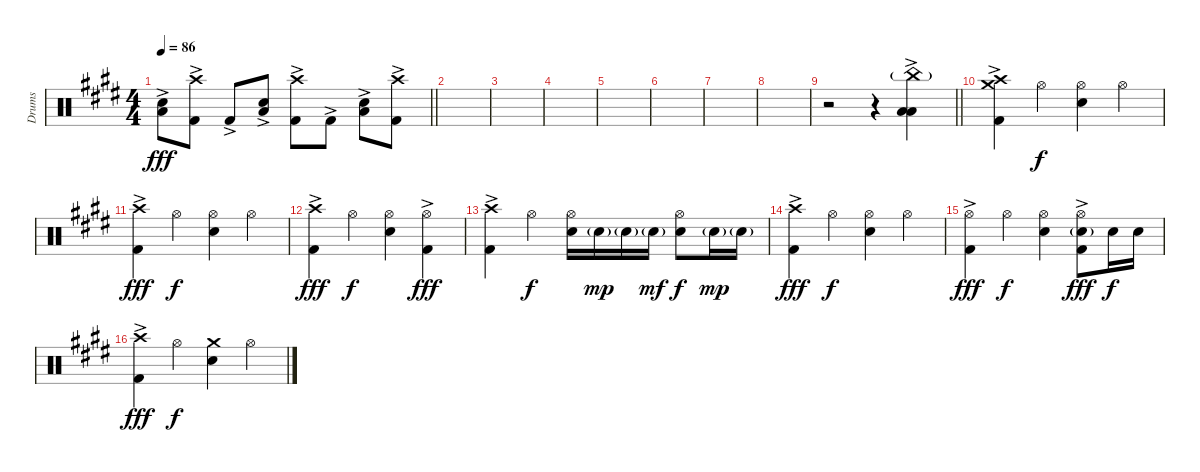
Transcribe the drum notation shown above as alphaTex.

\track ("Drums" "Drums") {instrument percussion}
\staff {score}
\articulation defaults
\ts (4 4)
\tempo 86
\clef neutral
\barLineRight lightlight
\ks c#minor
("Snare (hit) 2" "Low Tom (hit)"{ac}).8{dy fff} ("Crash high (hit)" "Kick (hit) 2"{ac}).8 "Kick (hit) 2"{ac}.8 ("Snare (hit) 2" "Low Tom (hit)"{ac}).8 ("Crash high (hit)" "Kick (hit) 2"{ac}).8 "Kick (hit) 2"{ac}.8 ("Snare (hit) 2" "Low Tom (hit)"{ac}).8 ("Crash high (hit)" "Kick (hit) 2"{ac}).8 |
|
|
|
|
|
|
|
\barLineRight lightlight
r.2 r.4{volume 16} ("China (hit)"{g} "Low Floor Tom (hit)" "Low Floor Tom (hit)"{ac}).4 |
("Crash high (hit)" "Crash medium (hit)" "Kick (hit) 2"{ac}).4 "Hi-Hat (open)".4{dy f} ("Hi-Hat (open)" "Snare (hit) 2").4 "Hi-Hat (open)".4 |
("Crash high (hit)" "Kick (hit) 2"{ac}).4{dy fff} "Hi-Hat (open)".4{dy f} ("Hi-Hat (open)" "Snare (hit) 2").4 "Hi-Hat (open)".4 |
("Crash high (hit)" "Kick (hit) 2"{ac}).4{dy fff} "Hi-Hat (open)".4{dy f} ("Hi-Hat (open)" "Snare (hit) 2").4 ("Hi-Hat (open)" "Kick (hit) 2"{ac}).4{dy fff} |
("Crash high (hit)" "Kick (hit) 2"{ac}).4 "Hi-Hat (open)".4{dy f} ("Hi-Hat (open)" "Snare (hit) 2").16 "Snare (hit) 2"{g}.16{dy mp} "Snare (hit) 2"{g}.16 "Snare (hit) 2"{g}.16{dy mf} ("Hi-Hat (open)" "Snare (hit) 2").8{dy f} "Snare (hit) 2"{g}.16{dy mp} "Snare (hit) 2"{g}.16 |
("Crash high (hit)" "Kick (hit) 2"{ac}).4{dy fff} "Hi-Hat (open)".4{dy f} ("Hi-Hat (open)" "Snare (hit) 2").4 "Hi-Hat (open)".4 |
("Hi-Hat (open)" "Kick (hit) 2"{ac}).4{dy fff} "Hi-Hat (open)".4{dy f} ("Hi-Hat (open)" "Snare (hit) 2").4 ("Hi-Hat (open)" "Snare (hit) 2"{g} "Kick (hit) 2"{ac}).8{dy fff} "Snare (hit) 2".16{dy f} "Snare (hit) 2".16 |
("Crash high (hit)" "Kick (hit) 2"{ac}).4{dy fff} "Hi-Hat (open)".4{dy f} ("Crash medium (hit)" "Snare (hit) 2").4 "Hi-Hat (open)".4
